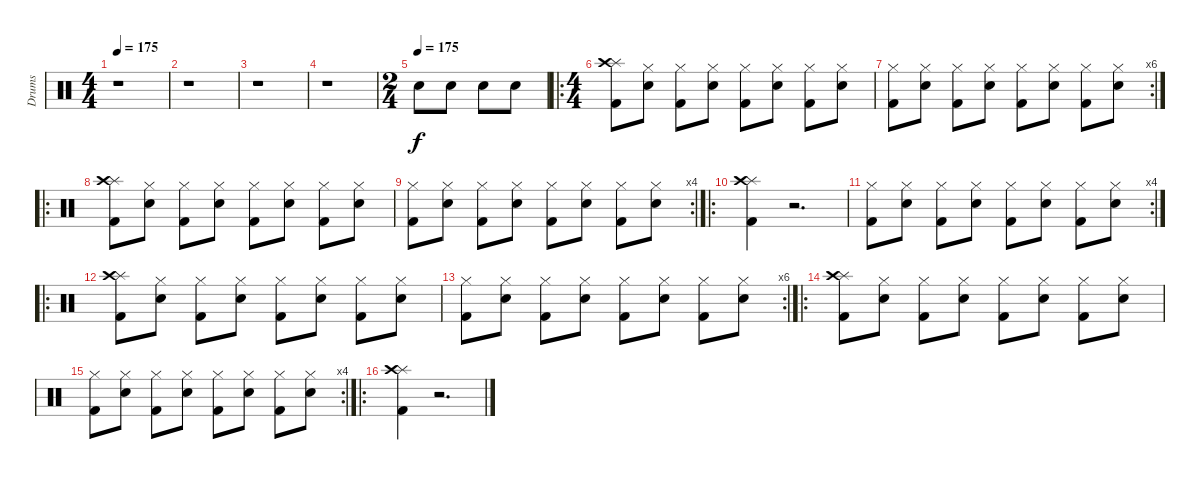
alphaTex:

\track ("Drums" "Drums") {instrument percussion}
\staff {score}
\articulation defaults
\ts (4 4)
\tempo 175
\tempo 250
\tempo 175
\clef neutral
\ks c
r.1{dy f} |
r.1 |
r.1 |
r.1 |
\ts (2 4)
\tempo (175)
"Snare (hit) 2".8{volume 6} "Snare (hit) 2".8{volume 8} "Snare (hit) 2".8{volume 10} "Snare (hit) 2".8{volume 13} |
\ro
\ts (4 4)
("Splash (hit)" "Crash high (hit)" "Kick (hit) 2").8 ("Hi-Hat (closed)" "Snare (hit) 2").8 ("Hi-Hat (closed)" "Kick (hit) 2").8 ("Hi-Hat (closed)" "Snare (hit) 2").8 ("Hi-Hat (closed)" "Kick (hit) 2").8 ("Hi-Hat (closed)" "Snare (hit) 2").8 ("Hi-Hat (closed)" "Kick (hit) 2").8 ("Hi-Hat (closed)" "Snare (hit) 2").8 |
\rc 6
("Hi-Hat (closed)" "Kick (hit) 2").8 ("Hi-Hat (closed)" "Snare (hit) 2").8 ("Hi-Hat (closed)" "Kick (hit) 2").8 ("Hi-Hat (closed)" "Snare (hit) 2").8 ("Hi-Hat (closed)" "Kick (hit) 2").8 ("Hi-Hat (closed)" "Snare (hit) 2").8 ("Hi-Hat (closed)" "Kick (hit) 2").8 ("Hi-Hat (closed)" "Snare (hit) 2").8 |
\ro
("Splash (hit)" "Crash high (hit)" "Kick (hit) 2").8 ("Hi-Hat (closed)" "Snare (hit) 2").8 ("Hi-Hat (closed)" "Kick (hit) 2").8 ("Hi-Hat (closed)" "Snare (hit) 2").8 ("Hi-Hat (closed)" "Kick (hit) 2").8 ("Hi-Hat (closed)" "Snare (hit) 2").8 ("Hi-Hat (closed)" "Kick (hit) 2").8 ("Hi-Hat (closed)" "Snare (hit) 2").8 |
\rc 4
("Hi-Hat (closed)" "Kick (hit) 2").8 ("Hi-Hat (closed)" "Snare (hit) 2").8 ("Hi-Hat (closed)" "Kick (hit) 2").8 ("Hi-Hat (closed)" "Snare (hit) 2").8 ("Hi-Hat (closed)" "Kick (hit) 2").8 ("Hi-Hat (closed)" "Snare (hit) 2").8 ("Hi-Hat (closed)" "Kick (hit) 2").8 ("Hi-Hat (closed)" "Snare (hit) 2").8 |
\ro
("Splash (hit)" "Crash high (hit)" "Kick (hit) 2").4 r.2{d} |
\rc 4
("Hi-Hat (closed)" "Kick (hit) 2").8 ("Hi-Hat (closed)" "Snare (hit) 2").8 ("Hi-Hat (closed)" "Kick (hit) 2").8 ("Hi-Hat (closed)" "Snare (hit) 2").8 ("Hi-Hat (closed)" "Kick (hit) 2").8 ("Hi-Hat (closed)" "Snare (hit) 2").8 ("Hi-Hat (closed)" "Kick (hit) 2").8 ("Hi-Hat (closed)" "Snare (hit) 2").8 |
\ro
("Splash (hit)" "Crash high (hit)" "Kick (hit) 2").8 ("Hi-Hat (closed)" "Snare (hit) 2").8 ("Hi-Hat (closed)" "Kick (hit) 2").8 ("Hi-Hat (closed)" "Snare (hit) 2").8 ("Hi-Hat (closed)" "Kick (hit) 2").8 ("Hi-Hat (closed)" "Snare (hit) 2").8 ("Hi-Hat (closed)" "Kick (hit) 2").8 ("Hi-Hat (closed)" "Snare (hit) 2").8 |
\rc 6
("Hi-Hat (closed)" "Kick (hit) 2").8 ("Hi-Hat (closed)" "Snare (hit) 2").8 ("Hi-Hat (closed)" "Kick (hit) 2").8 ("Hi-Hat (closed)" "Snare (hit) 2").8 ("Hi-Hat (closed)" "Kick (hit) 2").8 ("Hi-Hat (closed)" "Snare (hit) 2").8 ("Hi-Hat (closed)" "Kick (hit) 2").8 ("Hi-Hat (closed)" "Snare (hit) 2").8 |
\ro
("Splash (hit)" "Crash high (hit)" "Kick (hit) 2").8 ("Hi-Hat (closed)" "Snare (hit) 2").8 ("Hi-Hat (closed)" "Kick (hit) 2").8 ("Hi-Hat (closed)" "Snare (hit) 2").8 ("Hi-Hat (closed)" "Kick (hit) 2").8 ("Hi-Hat (closed)" "Snare (hit) 2").8 ("Hi-Hat (closed)" "Kick (hit) 2").8 ("Hi-Hat (closed)" "Snare (hit) 2").8 |
\rc 4
("Hi-Hat (closed)" "Kick (hit) 2").8 ("Hi-Hat (closed)" "Snare (hit) 2").8 ("Hi-Hat (closed)" "Kick (hit) 2").8 ("Hi-Hat (closed)" "Snare (hit) 2").8 ("Hi-Hat (closed)" "Kick (hit) 2").8 ("Hi-Hat (closed)" "Snare (hit) 2").8 ("Hi-Hat (closed)" "Kick (hit) 2").8 ("Hi-Hat (closed)" "Snare (hit) 2").8 |
\ro
("Splash (hit)" "Crash high (hit)" "Kick (hit) 2").4 r.2{d}
